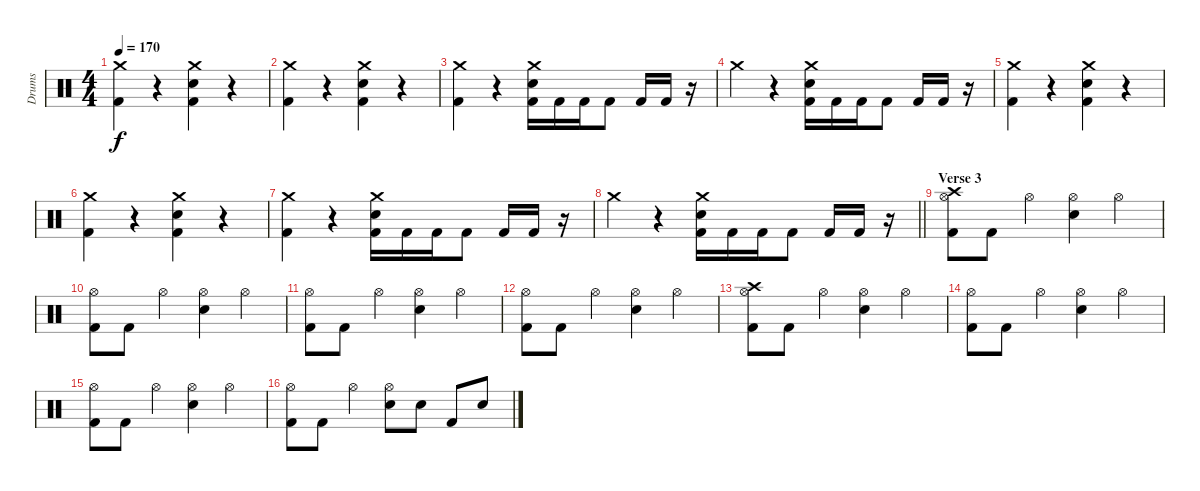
\track ("Drums" "Drums") {instrument percussion}
\staff {score}
\articulation defaults
\ts (4 4)
\tempo 170
\clef neutral
\ks c
("Crash medium (hit)" "Kick (hit) 2").4{dy f} r.4 ("Crash medium (hit)" "Electric Snare (hit)" "Kick (hit) 2").4 r.4 |
("Crash medium (hit)" "Kick (hit) 2").4 r.4 ("Crash medium (hit)" "Electric Snare (hit)" "Kick (hit) 2").4 r.4 |
("Crash medium (hit)" "Kick (hit) 2").4 r.4 ("Crash medium (hit)" "Electric Snare (hit)" "Kick (hit) 2").16 "Kick (hit) 2".16 "Kick (hit) 2".16 "Kick (hit) 2".8 "Kick (hit) 2".16 "Kick (hit) 2".16 r.16 |
"Crash medium (hit)".4 r.4 ("Crash medium (hit)" "Electric Snare (hit)" "Kick (hit) 2").16 "Kick (hit) 2".16 "Kick (hit) 2".16 "Kick (hit) 2".8 "Kick (hit) 2".16 "Kick (hit) 2".16 r.16 |
("Crash medium (hit)" "Kick (hit) 2").4 r.4 ("Crash medium (hit)" "Electric Snare (hit)" "Kick (hit) 2").4 r.4 |
("Crash medium (hit)" "Kick (hit) 2").4 r.4 ("Crash medium (hit)" "Electric Snare (hit)" "Kick (hit) 2").4 r.4 |
("Crash medium (hit)" "Kick (hit) 2").4 r.4 ("Crash medium (hit)" "Electric Snare (hit)" "Kick (hit) 2").16 "Kick (hit) 2".16 "Kick (hit) 2".16 "Kick (hit) 2".8 "Kick (hit) 2".16 "Kick (hit) 2".16 r.16 |
\barLineRight lightlight "Crash medium (hit)".4
r.4 ("Crash medium (hit)" "Electric Snare (hit)" "Kick (hit) 2").16 "Kick (hit) 2".16 "Kick (hit) 2".16 "Kick (hit) 2".8 "Kick (hit) 2".16 "Kick (hit) 2".16 r.16 |
\section ("" "Verse 3")
("Hi-Hat (open)" "Crash high (hit)" "Kick (hit) 2").8 "Kick (hit) 2".8 "Hi-Hat (open)".4 ("Hi-Hat (open)" "Electric Snare (hit)").4 "Hi-Hat (open)".4 |
("Hi-Hat (open)" "Kick (hit) 2").8 "Kick (hit) 2".8 "Hi-Hat (open)".4 ("Hi-Hat (open)" "Electric Snare (hit)").4 "Hi-Hat (open)".4 |
("Hi-Hat (open)" "Kick (hit) 2").8 "Kick (hit) 2".8 "Hi-Hat (open)".4 ("Hi-Hat (open)" "Electric Snare (hit)").4 "Hi-Hat (open)".4 |
("Hi-Hat (open)" "Kick (hit) 2").8 "Kick (hit) 2".8 "Hi-Hat (open)".4 ("Hi-Hat (open)" "Electric Snare (hit)").4 "Hi-Hat (open)".4 |
("Hi-Hat (open)" "Crash high (hit)" "Kick (hit) 2").8 "Kick (hit) 2".8 "Hi-Hat (open)".4 ("Hi-Hat (open)" "Electric Snare (hit)").4 "Hi-Hat (open)".4 |
("Hi-Hat (open)" "Kick (hit) 2").8 "Kick (hit) 2".8 "Hi-Hat (open)".4 ("Hi-Hat (open)" "Electric Snare (hit)").4 "Hi-Hat (open)".4 |
("Hi-Hat (open)" "Kick (hit) 2").8 "Kick (hit) 2".8 "Hi-Hat (open)".4 ("Hi-Hat (open)" "Electric Snare (hit)").4 "Hi-Hat (open)".4 |
("Hi-Hat (open)" "Kick (hit) 2").8 "Kick (hit) 2".8 "Hi-Hat (open)".4 ("Hi-Hat (open)" "Electric Snare (hit)").8 "Electric Snare (hit)".8 "Kick (hit) 2".8 "Electric Snare (hit)".8
